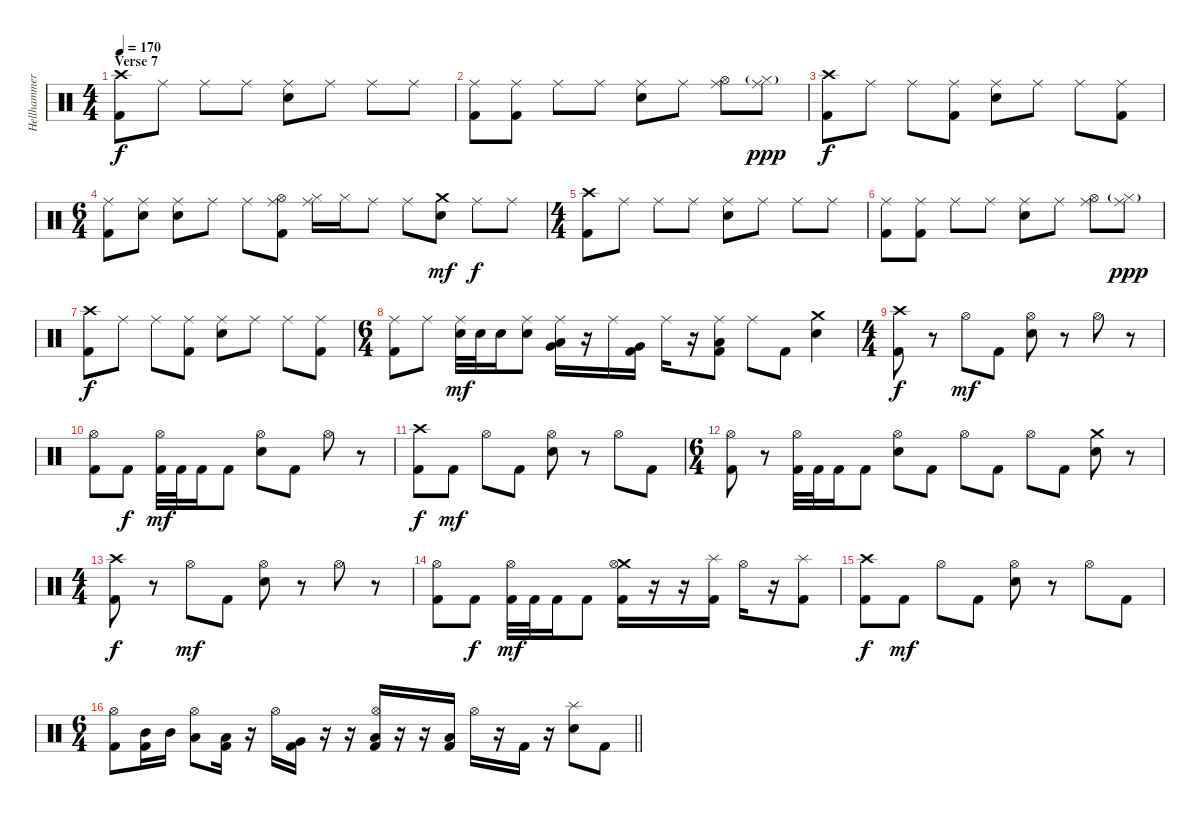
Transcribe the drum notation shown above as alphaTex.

\track ("Hellhammer" "Hellhammer") {instrument percussion}
\staff {score}
\articulation defaults
\ts (4 4)
\section ("" "Verse 7")
\tempo 170
\clef neutral
\ks c
("Crash high (hit)" "Kick (hit) 2").8{dy f} "Ride (middle)".8 "Ride (middle)".8 "Ride (middle)".8 ("Ride (middle)" "Snare (hit) 2").8 "Ride (middle)".8 "Ride (middle)".8 "Ride (middle)".8 |
("Ride (middle)" "Kick (hit) 2").8 ("Ride (middle)" "Kick (hit) 2").8 "Ride (middle)".8 "Ride (middle)".8 ("Ride (middle)" "Snare (hit) 2").8 "Ride (middle)".8 ("Ride (middle)" "Hi-Hat (open)").8 ("Ride (middle)" "Hi-Hat (closed)"{g}).8{dy ppp} |
("Crash high (hit)" "Kick (hit) 2").8{dy f} "Ride (middle)".8 "Ride (middle)".8 ("Ride (middle)" "Kick (hit) 2").8 ("Ride (middle)" "Snare (hit) 2").8 "Ride (middle)".8 "Ride (middle)".8 ("Ride (middle)" "Kick (hit) 2").8 |
\ts (6 4)
("Ride (middle)" "Kick (hit) 2").8 ("Ride (middle)" "Snare (hit) 2").8 ("Ride (middle)" "Snare (hit) 2").8 "Ride (middle)".8 "Ride (middle)".8 ("Ride (middle)" "Hi-Hat (open)" "Kick (hit) 2").8 ("Ride (middle)" "Hi-Hat (closed)").16 "Hi-Hat (closed)".16 "Ride (middle)".8 "Ride (middle)".8 ("Crash medium (hit)" "Snare (hit) 2").8{dy mf} "Ride (middle)".8{dy f} "Ride (middle)".8 |
\ts (4 4)
("Crash high (hit)" "Kick (hit) 2").8 "Ride (middle)".8 "Ride (middle)".8 "Ride (middle)".8 ("Ride (middle)" "Snare (hit) 2").8 "Ride (middle)".8 "Ride (middle)".8 "Ride (middle)".8 |
("Ride (middle)" "Kick (hit) 2").8 ("Ride (middle)" "Kick (hit) 2").8 "Ride (middle)".8 "Ride (middle)".8 ("Ride (middle)" "Snare (hit) 2").8 "Ride (middle)".8 ("Ride (middle)" "Hi-Hat (open)").8 ("Ride (middle)" "Hi-Hat (closed)"{g}).8{dy ppp} |
("Crash high (hit)" "Kick (hit) 2").8{dy f} "Ride (middle)".8 "Ride (middle)".8 ("Ride (middle)" "Kick (hit) 2").8 ("Ride (middle)" "Snare (hit) 2").8 "Ride (middle)".8 "Ride (middle)".8 ("Ride (middle)" "Kick (hit) 2").8 |
\ts (6 4)
("Ride (middle)" "Kick (hit) 2").8 "Ride (middle)".8 ("Ride (middle)" "Snare (hit) 2").32{dy mf} "Snare (hit) 2".32 "Snare (hit) 2".16 ("Ride (middle)" "Snare (hit) 2").8 ("Ride (middle)" "Low Tom (hit)" "Very Low Tom (hit)").16 r.16 "Ride (middle)".16 ("Very Low Tom (hit)" "Kick (hit) 2").16 "Ride (middle)".16 r.16 ("Ride (middle)" "Low Floor Tom (hit)" "Kick (hit) 2").8 "Ride (middle)".8 "Kick (hit) 2".8 ("Crash medium (hit)" "Snare (hit) 2").4 |
\ts (4 4)
("Crash high (hit)" "Kick (hit) 2").8{dy f} r.8 "Hi-Hat (open)".8{dy mf} "Kick (hit) 2".8 ("Hi-Hat (open)" "Snare (hit) 2").8 r.8 "Hi-Hat (open)".8 r.8 |
("Hi-Hat (open)" "Kick (hit) 2").8 "Kick (hit) 2".8{dy f} ("Hi-Hat (open)" "Kick (hit) 2").32{dy mf} "Kick (hit) 2".32 "Kick (hit) 2".16 "Kick (hit) 2".8 ("Hi-Hat (open)" "Snare (hit) 2").8 "Kick (hit) 2".8 "Hi-Hat (open)".8 r.8 |
("Crash high (hit)" "Kick (hit) 2").8{dy f} "Kick (hit) 2".8{dy mf} "Hi-Hat (open)".8 "Kick (hit) 2".8 ("Hi-Hat (open)" "Snare (hit) 2").8 r.8 "Hi-Hat (open)".8 "Kick (hit) 2".8 |
\ts (6 4)
("Hi-Hat (open)" "Kick (hit) 2").8 r.8 ("Hi-Hat (open)" "Kick (hit) 2").32 "Kick (hit) 2".32 "Kick (hit) 2".16 "Kick (hit) 2".8 ("Hi-Hat (open)" "Snare (hit) 2").8 "Kick (hit) 2".8 "Hi-Hat (open)".8 "Kick (hit) 2".8 "Hi-Hat (open)".8 "Kick (hit) 2".8 ("Crash medium (hit)" "Snare (hit) 2").8 r.8 |
\ts (4 4)
("Crash high (hit)" "Kick (hit) 2").8{dy f} r.8 "Hi-Hat (open)".8{dy mf} "Kick (hit) 2".8 ("Hi-Hat (open)" "Snare (hit) 2").8 r.8 "Hi-Hat (open)".8 r.8 |
("Hi-Hat (open)" "Kick (hit) 2").8 "Kick (hit) 2".8{dy f} ("Hi-Hat (open)" "Kick (hit) 2").32{dy mf} "Kick (hit) 2".32 "Kick (hit) 2".16 "Kick (hit) 2".8 ("Crash medium (hit)" "Hi-Hat (open)" "Kick (hit) 2").16 r.16 r.16 ("Splash (hit)" "Kick (hit) 2").16 "Hi-Hat (open)".16 r.16 ("Splash (hit)" "Kick (hit) 2").8 |
("Crash high (hit)" "Kick (hit) 2").8{dy f} "Kick (hit) 2".8{dy mf} "Hi-Hat (open)".8 "Kick (hit) 2".8 ("Hi-Hat (open)" "Snare (hit) 2").8 r.8 "Hi-Hat (open)".8 "Kick (hit) 2".8 |
\ts (6 4)
\barLineRight lightlight
("Hi-Hat (open)" "Kick (hit) 2").8 ("Mid Tom (hit)" "Kick (hit) 2").16 "Mid Tom (hit)".16 ("Hi-Hat (open)" "Low Tom (hit)").8 ("Low Tom (hit)" "Kick (hit) 2").16 r.16 "Hi-Hat (open)".16 ("Very Low Tom (hit)" "Kick (hit) 2").16 r.16 r.16 ("Hi-Hat (open)" "Low Floor Tom (hit)" "Kick (hit) 2").16 r.16 r.16 ("Low Floor Tom (hit)" "Kick (hit) 2").16 "Hi-Hat (open)".16 r.16 "Kick (hit) 2".16 r.16 ("Splash (hit)" "Snare (hit) 2").8 "Kick (hit) 2".8
